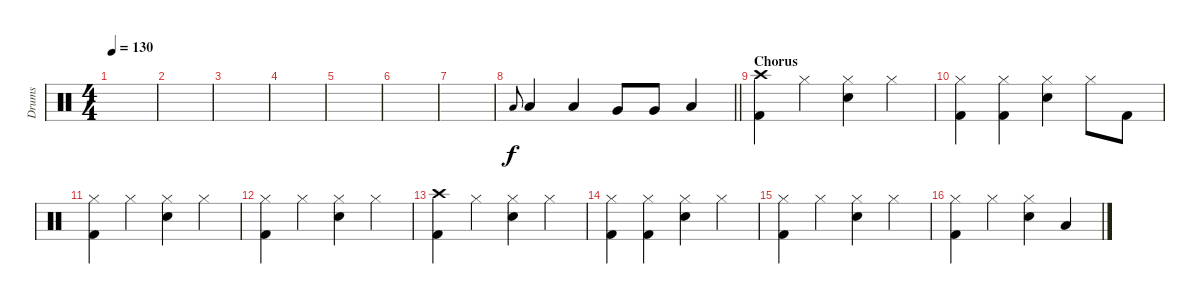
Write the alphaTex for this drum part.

\track ("Drums" "Drums") {instrument percussion}
\staff {score}
\articulation defaults
\ts (4 4)
\tempo 130
\clef neutral
\ks c
|
|
|
|
|
|
|
\barLineRight lightlight "Low Tom (hit)".8{gr onbeat} "Low Tom (hit)".4 "Low Tom (hit)".4 "Very Low Tom (hit)".8 "Very Low Tom (hit)".8 "Low Floor Tom (hit)".4
|
\section ("" "Chorus")
("Crash high (hit)" "Kick (hit) 2").4 "Hi-Hat (closed)".4 ("Hi-Hat (closed)" "Electric Snare (hit)").4 "Hi-Hat (closed)".4 |
("Hi-Hat (closed)" "Kick (hit) 2").4 ("Hi-Hat (closed)" "Kick (hit) 2").4 ("Hi-Hat (closed)" "Electric Snare (hit)").4 "Hi-Hat (closed)".8 "Kick (hit) 2".8 |
("Hi-Hat (closed)" "Kick (hit) 2").4 "Hi-Hat (closed)".4 ("Hi-Hat (closed)" "Electric Snare (hit)").4 "Hi-Hat (closed)".4 |
("Hi-Hat (closed)" "Kick (hit) 2").4 "Hi-Hat (closed)".4 ("Hi-Hat (closed)" "Electric Snare (hit)").4 "Hi-Hat (closed)".4 |
("Crash high (hit)" "Kick (hit) 2").4 "Hi-Hat (closed)".4 ("Hi-Hat (closed)" "Electric Snare (hit)").4 "Hi-Hat (closed)".4 |
("Hi-Hat (closed)" "Kick (hit) 2").4 ("Hi-Hat (closed)" "Kick (hit) 2").4 ("Hi-Hat (closed)" "Electric Snare (hit)").4 "Hi-Hat (closed)".4 |
("Hi-Hat (closed)" "Kick (hit) 2").4 "Hi-Hat (closed)".4 ("Hi-Hat (closed)" "Electric Snare (hit)").4 "Hi-Hat (closed)".4 |
("Hi-Hat (closed)" "Kick (hit) 2").4 "Hi-Hat (closed)".4 ("Hi-Hat (closed)" "Electric Snare (hit)").4 "Low Tom (hit)".4
